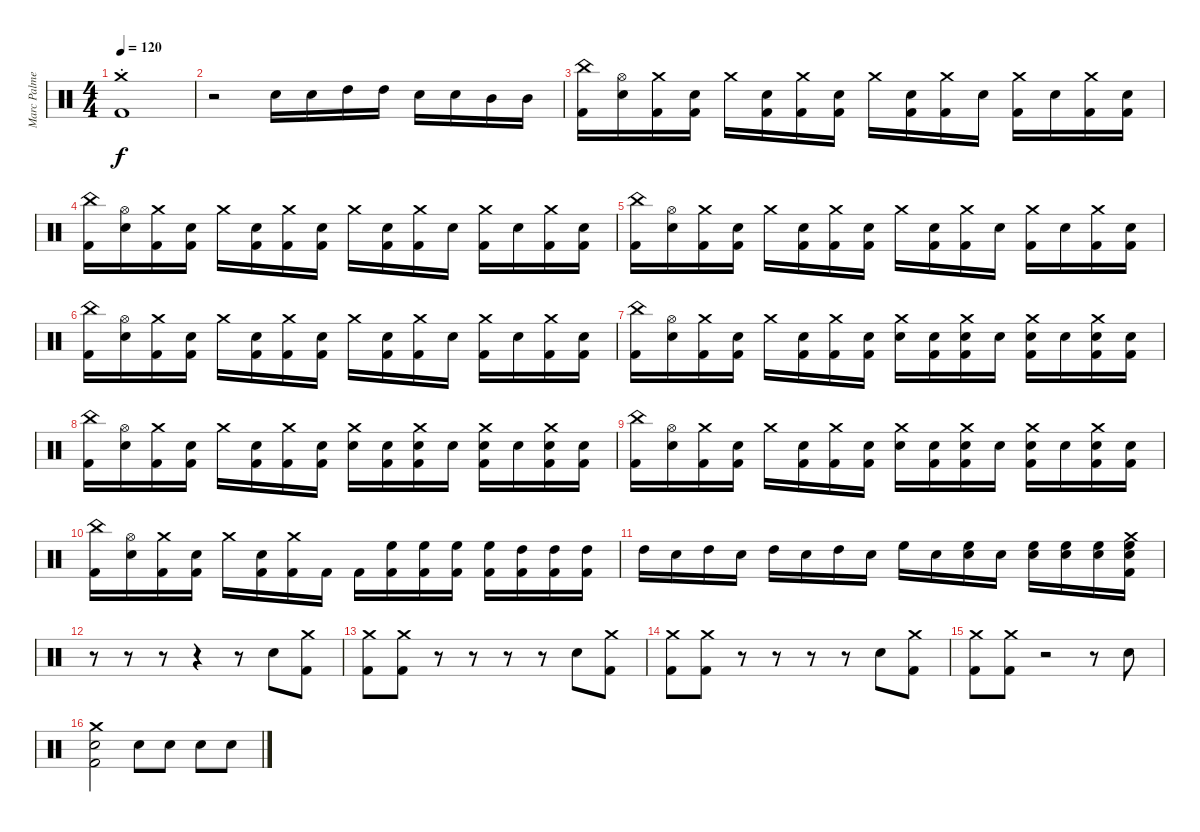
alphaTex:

\track ("Marc Palmen" "Marc Palme") {instrument percussion}
\staff {score}
\articulation defaults
\ts (4 4)
\tempo 120
\clef neutral
\ks c
("Crash medium (hit)"{st} "Kick (hit) 2"{st}).1{dy f} |
r.2 "Electric Snare (hit)".16 "Electric Snare (hit)".16 "High Tom (hit)".16 "High Tom (hit)".16 "Electric Snare (hit)".16 "Electric Snare (hit)".16 "Mid Tom (hit)".16 "Mid Tom (hit)".16 |
("China (hit)" "Kick (hit) 2").16 ("Hi-Hat (open)" "Electric Snare (hit)").16 ("Crash medium (hit)" "Kick (hit) 2").16 ("Electric Snare (hit)" "Kick (hit) 2").16 "Crash medium (hit)".16 ("Electric Snare (hit)" "Kick (hit) 2").16 ("Crash medium (hit)" "Kick (hit) 2").16 ("Electric Snare (hit)" "Kick (hit) 2").16 "Crash medium (hit)".16 ("Electric Snare (hit)" "Kick (hit) 2").16 ("Crash medium (hit)" "Kick (hit) 2").16 "Electric Snare (hit)".16 ("Crash medium (hit)" "Kick (hit) 2").16 "Electric Snare (hit)".16 ("Crash medium (hit)" "Kick (hit) 2").16 ("Electric Snare (hit)" "Kick (hit) 2").16 |
("China (hit)" "Kick (hit) 2").16 ("Hi-Hat (open)" "Electric Snare (hit)").16 ("Crash medium (hit)" "Kick (hit) 2").16 ("Electric Snare (hit)" "Kick (hit) 2").16 "Crash medium (hit)".16 ("Electric Snare (hit)" "Kick (hit) 2").16 ("Crash medium (hit)" "Kick (hit) 2").16 ("Electric Snare (hit)" "Kick (hit) 2").16 "Crash medium (hit)".16 ("Electric Snare (hit)" "Kick (hit) 2").16 ("Crash medium (hit)" "Kick (hit) 2").16 "Electric Snare (hit)".16 ("Crash medium (hit)" "Kick (hit) 2").16 "Electric Snare (hit)".16 ("Crash medium (hit)" "Kick (hit) 2").16 ("Electric Snare (hit)" "Kick (hit) 2").16 |
("China (hit)" "Kick (hit) 2").16 ("Hi-Hat (open)" "Electric Snare (hit)").16 ("Crash medium (hit)" "Kick (hit) 2").16 ("Electric Snare (hit)" "Kick (hit) 2").16 "Crash medium (hit)".16 ("Electric Snare (hit)" "Kick (hit) 2").16 ("Crash medium (hit)" "Kick (hit) 2").16 ("Electric Snare (hit)" "Kick (hit) 2").16 "Crash medium (hit)".16 ("Electric Snare (hit)" "Kick (hit) 2").16 ("Crash medium (hit)" "Kick (hit) 2").16 "Electric Snare (hit)".16 ("Crash medium (hit)" "Kick (hit) 2").16 "Electric Snare (hit)".16 ("Crash medium (hit)" "Kick (hit) 2").16 ("Electric Snare (hit)" "Kick (hit) 2").16 |
("China (hit)" "Kick (hit) 2").16 ("Hi-Hat (open)" "Electric Snare (hit)").16 ("Crash medium (hit)" "Kick (hit) 2").16 ("Electric Snare (hit)" "Kick (hit) 2").16 "Crash medium (hit)".16 ("Electric Snare (hit)" "Kick (hit) 2").16 ("Crash medium (hit)" "Kick (hit) 2").16 ("Electric Snare (hit)" "Kick (hit) 2").16 "Crash medium (hit)".16 ("Electric Snare (hit)" "Kick (hit) 2").16 ("Crash medium (hit)" "Kick (hit) 2").16 "Electric Snare (hit)".16 ("Crash medium (hit)" "Kick (hit) 2").16 "Electric Snare (hit)".16 ("Crash medium (hit)" "Kick (hit) 2").16 ("Electric Snare (hit)" "Kick (hit) 2").16 |
("China (hit)" "Kick (hit) 2").16 ("Hi-Hat (open)" "Electric Snare (hit)").16 ("Crash medium (hit)" "Kick (hit) 2").16 ("Electric Snare (hit)" "Kick (hit) 2").16 "Crash medium (hit)".16 ("Electric Snare (hit)" "Kick (hit) 2").16 ("Crash medium (hit)" "Kick (hit) 2").16 ("Electric Snare (hit)" "Kick (hit) 2").16 ("Crash medium (hit)" "Electric Snare (hit)").16 ("Electric Snare (hit)" "Kick (hit) 2").16 ("Crash medium (hit)" "Electric Snare (hit)" "Kick (hit) 2").16 "Electric Snare (hit)".16 ("Crash medium (hit)" "Electric Snare (hit)" "Kick (hit) 2").16 "Electric Snare (hit)".16 ("Crash medium (hit)" "Electric Snare (hit)" "Kick (hit) 2").16 ("Electric Snare (hit)" "Kick (hit) 2").16 |
("China (hit)" "Kick (hit) 2").16 ("Hi-Hat (open)" "Electric Snare (hit)").16 ("Crash medium (hit)" "Kick (hit) 2").16 ("Electric Snare (hit)" "Kick (hit) 2").16 "Crash medium (hit)".16 ("Electric Snare (hit)" "Kick (hit) 2").16 ("Crash medium (hit)" "Kick (hit) 2").16 ("Electric Snare (hit)" "Kick (hit) 2").16 ("Crash medium (hit)" "Electric Snare (hit)").16 ("Electric Snare (hit)" "Kick (hit) 2").16 ("Crash medium (hit)" "Electric Snare (hit)" "Kick (hit) 2").16 "Electric Snare (hit)".16 ("Crash medium (hit)" "Electric Snare (hit)" "Kick (hit) 2").16 "Electric Snare (hit)".16 ("Crash medium (hit)" "Electric Snare (hit)" "Kick (hit) 2").16 ("Electric Snare (hit)" "Kick (hit) 2").16 |
("China (hit)" "Kick (hit) 2").16 ("Hi-Hat (open)" "Electric Snare (hit)").16 ("Crash medium (hit)" "Kick (hit) 2").16 ("Electric Snare (hit)" "Kick (hit) 2").16 "Crash medium (hit)".16 ("Electric Snare (hit)" "Kick (hit) 2").16 ("Crash medium (hit)" "Kick (hit) 2").16 ("Electric Snare (hit)" "Kick (hit) 2").16 ("Crash medium (hit)" "Electric Snare (hit)").16 ("Electric Snare (hit)" "Kick (hit) 2").16 ("Crash medium (hit)" "Electric Snare (hit)" "Kick (hit) 2").16 "Electric Snare (hit)".16 ("Crash medium (hit)" "Electric Snare (hit)" "Kick (hit) 2").16 "Electric Snare (hit)".16 ("Crash medium (hit)" "Electric Snare (hit)" "Kick (hit) 2").16 ("Electric Snare (hit)" "Kick (hit) 2").16 |
("China (hit)" "Kick (hit) 2").16 ("Hi-Hat (open)" "Electric Snare (hit)").16 ("Crash medium (hit)" "Kick (hit) 2").16 ("Electric Snare (hit)" "Kick (hit) 2").16 "Crash medium (hit)".16 ("Electric Snare (hit)" "Kick (hit) 2").16 ("Crash medium (hit)" "Kick (hit) 2").16 "Kick (hit) 2".16 "Kick (hit) 2".16 ("High Floor Tom (hit)" "Kick (hit) 2").16 ("High Floor Tom (hit)" "Kick (hit) 2").16 ("High Floor Tom (hit)" "Kick (hit) 2").16 ("High Floor Tom (hit)" "Kick (hit) 2").16 ("High Tom (hit)" "Kick (hit) 2").16 ("High Tom (hit)" "Kick (hit) 2").16 ("High Tom (hit)" "Kick (hit) 2").16 |
"High Tom (hit)".16 "Electric Snare (hit)".16 "High Tom (hit)".16 "Electric Snare (hit)".16 "High Tom (hit)".16 "Electric Snare (hit)".16 "High Tom (hit)".16 "Electric Snare (hit)".16 "High Floor Tom (hit)".16 "Electric Snare (hit)".16 ("High Floor Tom (hit)" "Electric Snare (hit)").16 "Electric Snare (hit)".16 ("High Floor Tom (hit)" "Electric Snare (hit)").16 ("High Floor Tom (hit)" "Electric Snare (hit)").16 ("High Floor Tom (hit)" "Electric Snare (hit)").16 ("Crash medium (hit)" "High Floor Tom (hit)" "Electric Snare (hit)" "Kick (hit) 2").16 |
r.8 r.8 r.8 r.4 r.8 "Electric Snare (hit)".8 ("Crash medium (hit)" "Kick (hit) 2").8 |
("Crash medium (hit)" "Kick (hit) 2").8 ("Crash medium (hit)" "Kick (hit) 2").8 r.8 r.8 r.8 r.8 "Electric Snare (hit)".8 ("Crash medium (hit)" "Kick (hit) 2").8 |
("Crash medium (hit)" "Kick (hit) 2").8 ("Crash medium (hit)" "Kick (hit) 2").8 r.8 r.8 r.8 r.8 "Electric Snare (hit)".8 ("Crash medium (hit)" "Kick (hit) 2").8 |
("Crash medium (hit)" "Kick (hit) 2").8 ("Crash medium (hit)" "Kick (hit) 2").8 r.2 r.8 "Electric Snare (hit)".8 |
("Crash medium (hit)" "Electric Snare (hit)" "Kick (hit) 2").2 "Electric Snare (hit)".8 "Electric Snare (hit)".8 "Electric Snare (hit)".8 "Electric Snare (hit)".8
